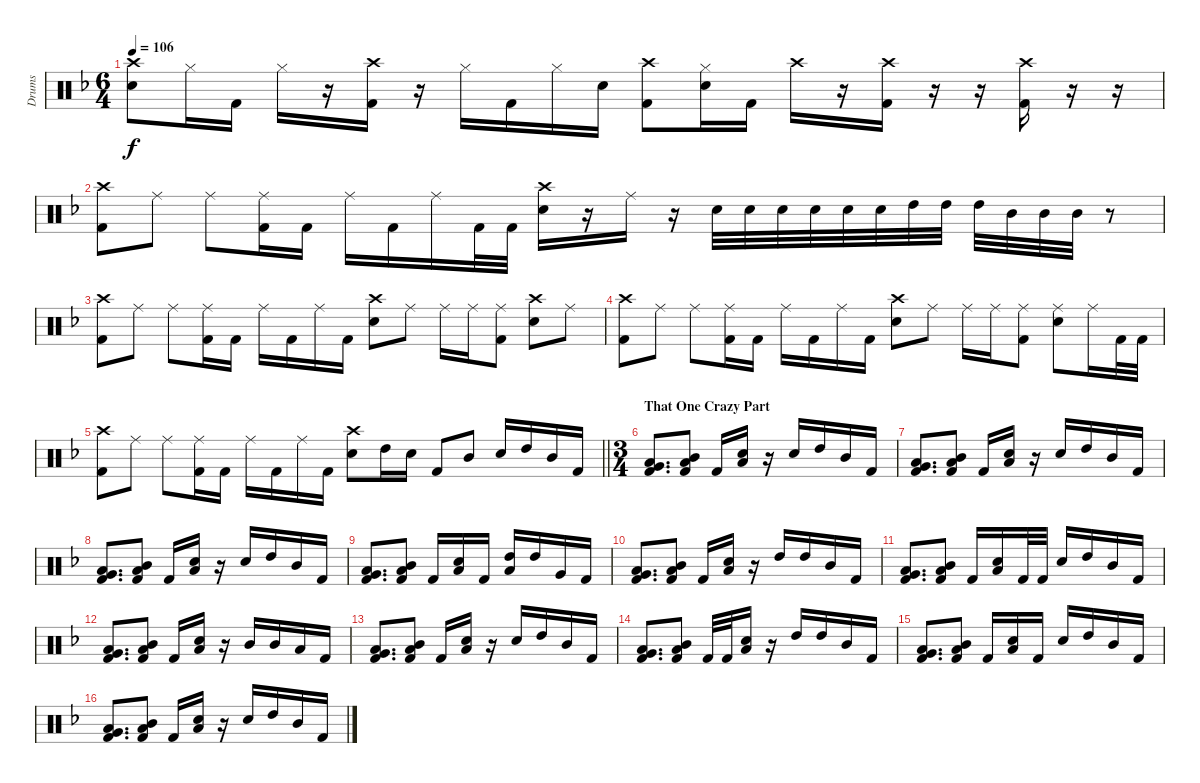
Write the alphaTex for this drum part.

\track ("Drums" "Drums") {instrument percussion}
\staff {score}
\articulation defaults
\ts (6 4)
\tempo 106
\clef neutral
\ks dminor
("Crash high (hit)" "Snare (hit) 2").8{dy f} "Hi-Hat (closed)".16 "Kick (hit) 2".16 "Hi-Hat (closed)".16 r.16 ("Crash high (hit)" "Kick (hit) 2").16 r.16 "Hi-Hat (closed)".16 "Kick (hit) 2".16 "Hi-Hat (closed)".16 "Snare (hit) 2".16 ("Crash high (hit)" "Kick (hit) 2").8 ("Hi-Hat (closed)" "Snare (hit) 2").16 "Kick (hit) 2".16 "Crash high (hit)".16 r.16 ("Crash high (hit)" "Kick (hit) 2").16 r.16 r.16 ("Crash high (hit)" "Kick (hit) 2").16 r.16 r.16 |
("Crash high (hit)" "Kick (hit) 2").8 "Ride (middle)".8 "Ride (middle)".8 ("Ride (middle)" "Kick (hit) 2").16 "Kick (hit) 2".16 "Ride (middle)".16 "Kick (hit) 2".16 "Ride (middle)".16 "Kick (hit) 2".32 "Kick (hit) 2".32 ("Crash high (hit)" "Snare (hit) 2").16 r.16 "Ride (middle)".16 r.16 "Snare (hit) 2".32 "Snare (hit) 2".32 "Snare (hit) 2".32 "Snare (hit) 2".32 "Snare (hit) 2".32 "Snare (hit) 2".32 "High Tom (hit)".32 "High Tom (hit)".32 "High Tom (hit)".32 "Mid Tom (hit)".32 "Mid Tom (hit)".32 "Mid Tom (hit)".32 r.8 |
("Crash high (hit)" "Kick (hit) 2").8 "Ride (middle)".8 "Ride (middle)".8 ("Ride (middle)" "Kick (hit) 2").16 "Kick (hit) 2".16 "Ride (middle)".16 "Kick (hit) 2".16 "Ride (middle)".16 "Kick (hit) 2".16 ("Crash high (hit)" "Snare (hit) 2").8 "Ride (middle)".8 "Ride (middle)".16 "Ride (middle)".16 ("Ride (middle)" "Kick (hit) 2").8 ("Crash high (hit)" "Snare (hit) 2").8 "Ride (middle)".8 |
("Crash high (hit)" "Kick (hit) 2").8 "Ride (middle)".8 "Ride (middle)".8 ("Ride (middle)" "Kick (hit) 2").16 "Kick (hit) 2".16 "Ride (middle)".16 "Kick (hit) 2".16 "Ride (middle)".16 "Kick (hit) 2".16 ("Crash high (hit)" "Snare (hit) 2").8 "Ride (middle)".8 "Ride (middle)".16 "Ride (middle)".16 ("Ride (middle)" "Kick (hit) 2").8 ("Ride (middle)" "Snare (hit) 2").8 "Ride (middle)".16 "Kick (hit) 2".32 "Kick (hit) 2".32 |
\barLineRight lightlight
("Crash high (hit)" "Kick (hit) 2").8 "Ride (middle)".8 "Ride (middle)".8 ("Ride (middle)" "Kick (hit) 2").16 "Kick (hit) 2".16 "Ride (middle)".16 "Kick (hit) 2".16 "Ride (middle)".16 "Kick (hit) 2".16 ("Crash high (hit)" "Snare (hit) 2").8 "High Tom (hit)".16 "Snare (hit) 2".16 "Kick (hit) 2".8 "Mid Tom (hit)".8 "Snare (hit) 2".16 "High Tom (hit)".16 "Mid Tom (hit)".16 "Kick (hit) 2".16 |
\ts (3 4)
\section ("" "That One Crazy Part ")
("Low Tom (hit)" "Very Low Tom (hit)" "Kick (hit) 2").8{d} ("Mid Tom (hit)" "Low Tom (hit)" "Kick (hit) 2").8 "Kick (hit) 2".16 ("Snare (hit) 2" "Low Tom (hit)").16 r.16 "Snare (hit) 2".16 "High Tom (hit)".16 "Mid Tom (hit)".16 "Kick (hit) 2".16 |
("Low Tom (hit)" "Very Low Tom (hit)" "Kick (hit) 2").8{d} ("Mid Tom (hit)" "Low Tom (hit)" "Kick (hit) 2").8 "Kick (hit) 2".16 ("Snare (hit) 2" "Low Tom (hit)").16 r.16 "Snare (hit) 2".16 "High Tom (hit)".16 "Mid Tom (hit)".16 "Kick (hit) 2".16 |
("Low Tom (hit)" "Very Low Tom (hit)" "Kick (hit) 2").8{d} ("Mid Tom (hit)" "Low Tom (hit)" "Kick (hit) 2").8 "Kick (hit) 2".16 ("Snare (hit) 2" "Low Tom (hit)").16 r.16 "Snare (hit) 2".16 "High Tom (hit)".16 "Mid Tom (hit)".16 "Kick (hit) 2".16 |
("Low Tom (hit)" "Very Low Tom (hit)" "Kick (hit) 2").8{d} ("Mid Tom (hit)" "Low Tom (hit)" "Kick (hit) 2").8 "Kick (hit) 2".16 ("Snare (hit) 2" "Low Tom (hit)").16 "Kick (hit) 2".16 ("High Tom (hit)" "Low Tom (hit)").16 "High Tom (hit)".16 "Very Low Tom (hit)".16 "Kick (hit) 2".16 |
("Low Tom (hit)" "Very Low Tom (hit)" "Kick (hit) 2").8{d} ("Mid Tom (hit)" "Low Tom (hit)" "Kick (hit) 2").8 "Kick (hit) 2".16 ("Snare (hit) 2" "Low Tom (hit)").16 r.16 "High Tom (hit)".16 "High Tom (hit)".16 "Mid Tom (hit)".16 "Kick (hit) 2".16 |
("Low Tom (hit)" "Very Low Tom (hit)" "Kick (hit) 2").8{d} ("Mid Tom (hit)" "Low Tom (hit)" "Kick (hit) 2").8 "Kick (hit) 2".16 ("Snare (hit) 2" "Low Tom (hit)").16 "Kick (hit) 2".32 "Kick (hit) 2".32 "Snare (hit) 2".16 "High Tom (hit)".16 "Mid Tom (hit)".16 "Kick (hit) 2".16 |
("Low Tom (hit)" "Very Low Tom (hit)" "Kick (hit) 2").8{d} ("Mid Tom (hit)" "Low Tom (hit)" "Kick (hit) 2").8 "Kick (hit) 2".16 ("Snare (hit) 2" "Low Tom (hit)").16 r.16 "Mid Tom (hit)".16 "Mid Tom (hit)".16 "Low Tom (hit)".16 "Kick (hit) 2".16 |
("Low Tom (hit)" "Very Low Tom (hit)" "Kick (hit) 2").8{d} ("Mid Tom (hit)" "Low Tom (hit)" "Kick (hit) 2").8 "Kick (hit) 2".16 ("Snare (hit) 2" "Low Tom (hit)").16 r.16 "Snare (hit) 2".16 "High Tom (hit)".16 "Mid Tom (hit)".16 "Kick (hit) 2".16 |
("Low Tom (hit)" "Very Low Tom (hit)" "Kick (hit) 2").8{d} ("Mid Tom (hit)" "Low Tom (hit)" "Kick (hit) 2").8 "Kick (hit) 2".32 "Kick (hit) 2".32 ("Snare (hit) 2" "Low Tom (hit)").16 r.16 "High Tom (hit)".16 "High Tom (hit)".16 "Mid Tom (hit)".16 "Kick (hit) 2".16 |
("Low Tom (hit)" "Very Low Tom (hit)" "Kick (hit) 2").8{d} ("Mid Tom (hit)" "Low Tom (hit)" "Kick (hit) 2").8 "Kick (hit) 2".16 ("Snare (hit) 2" "Low Tom (hit)").16 "Kick (hit) 2".16 "Snare (hit) 2".16 "High Tom (hit)".16 "Mid Tom (hit)".16 "Kick (hit) 2".16 |
("Low Tom (hit)" "Very Low Tom (hit)" "Kick (hit) 2").8{d} ("Mid Tom (hit)" "Low Tom (hit)" "Kick (hit) 2").8 "Kick (hit) 2".16 ("Snare (hit) 2" "Low Tom (hit)").16 r.16 "Snare (hit) 2".16 "High Tom (hit)".16 "Mid Tom (hit)".16 "Kick (hit) 2".16
